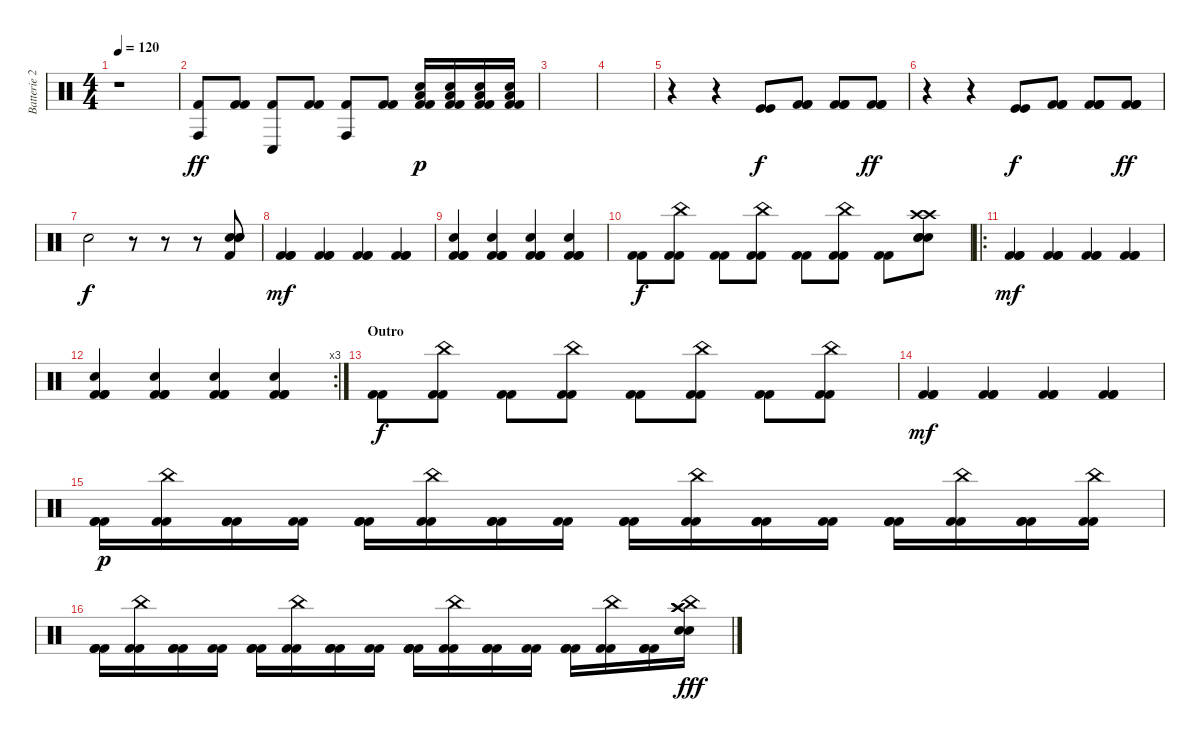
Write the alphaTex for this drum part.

\track ("Batterie 2" "Batterie 2") {instrument percussion}
\staff {score}
\articulation defaults
\ts (4 4)
\tempo 120
\clef neutral
\ks c
r.1{dy p} |
("Conga high (hit)" "Kick (hit) 2").8{dy ff} ("Kick (hit) 2" "Kick (hit) 2").8 ("Conga low (hit)" "Kick (hit) 2").8 ("Kick (hit) 2" "Kick (hit) 2").8 ("Conga high (hit)" "Kick (hit) 2").8 ("Kick (hit) 2" "Kick (hit) 2").8 ("Low Tom (hit)" "Kick (hit) 2" "Kick (hit) 2" "Electric Snare (hit)").16{dy p} ("Low Tom (hit)" "Kick (hit) 2" "Kick (hit) 2" "Electric Snare (hit)").16 ("Low Tom (hit)" "Kick (hit) 2" "Kick (hit) 2" "Electric Snare (hit)").16 ("Low Floor Tom (hit)" "Kick (hit) 2" "Kick (hit) 2" "Electric Snare (hit)").16 |
|
|
r.4 r.4 ("Kick (hit)" "Kick (hit)").8{dy f} ("Kick (hit) 2" "Kick (hit) 2" "Kick (hit) 2").8 ("Kick (hit) 2" "Kick (hit) 2" "Kick (hit) 2").8 ("Kick (hit) 2" "Kick (hit) 2" "Kick (hit) 2").8{dy ff} |
r.4 r.4 ("Kick (hit)" "Kick (hit)").8{dy f} ("Kick (hit) 2" "Kick (hit) 2" "Kick (hit) 2").8 ("Kick (hit) 2" "Kick (hit) 2" "Kick (hit) 2").8 ("Kick (hit) 2" "Kick (hit) 2" "Kick (hit) 2").8{dy ff} |
\section ("" "")
"Snare (hit)".2{dy f} r.8 r.8 r.8 ("Electric Snare (hit)" "Electric Snare (hit)" "Electric Snare (hit)" "Kick (hit) 2").8{bd 120} |
("Kick (hit) 2" "Kick (hit) 2" "Kick (hit) 2").4{dy mf} ("Kick (hit) 2" "Kick (hit) 2" "Kick (hit) 2").4 ("Kick (hit) 2" "Kick (hit) 2" "Kick (hit) 2").4 ("Kick (hit) 2" "Kick (hit) 2" "Kick (hit) 2").4 |
("Electric Snare (hit)" "Kick (hit) 2" "Kick (hit) 2" "Kick (hit) 2").4 ("Electric Snare (hit)" "Kick (hit) 2" "Kick (hit) 2" "Kick (hit) 2").4 ("Electric Snare (hit)" "Kick (hit) 2" "Kick (hit) 2" "Kick (hit) 2").4 ("Electric Snare (hit)" "Kick (hit) 2" "Kick (hit) 2" "Kick (hit) 2").4 |
("Kick (hit) 2" "Kick (hit) 2").8{dy f} ("China (hit)" "Kick (hit) 2" "Kick (hit) 2").8 ("Kick (hit) 2" "Kick (hit) 2").8 ("China (hit)" "Kick (hit) 2" "Kick (hit) 2").8 ("Kick (hit) 2" "Kick (hit) 2").8 ("China (hit)" "Kick (hit) 2" "Kick (hit) 2").8 ("Kick (hit) 2" "Kick (hit) 2").8 ("Crash high (hit)" "Crash high (hit)" "Electric Snare (hit)" "Electric Snare (hit)" "Electric Snare (hit)").8 |
\ro
("Kick (hit) 2" "Kick (hit) 2" "Kick (hit) 2").4{dy mf} ("Kick (hit) 2" "Kick (hit) 2" "Kick (hit) 2").4 ("Kick (hit) 2" "Kick (hit) 2" "Kick (hit) 2").4 ("Kick (hit) 2" "Kick (hit) 2" "Kick (hit) 2").4 |
\rc 3
("Electric Snare (hit)" "Kick (hit) 2" "Kick (hit) 2" "Kick (hit) 2").4 ("Electric Snare (hit)" "Kick (hit) 2" "Kick (hit) 2" "Kick (hit) 2").4 ("Electric Snare (hit)" "Kick (hit) 2" "Kick (hit) 2" "Kick (hit) 2").4 ("Electric Snare (hit)" "Kick (hit) 2" "Kick (hit) 2" "Kick (hit) 2").4 |
\section ("" "Outro")
("Kick (hit) 2" "Kick (hit) 2").8{dy f} ("China (hit)" "Kick (hit) 2" "Kick (hit) 2").8 ("Kick (hit) 2" "Kick (hit) 2").8 ("China (hit)" "Kick (hit) 2" "Kick (hit) 2").8 ("Kick (hit) 2" "Kick (hit) 2").8 ("China (hit)" "Kick (hit) 2" "Kick (hit) 2").8 ("Kick (hit) 2" "Kick (hit) 2").8 ("China (hit)" "Kick (hit) 2" "Kick (hit) 2").8 |
("Kick (hit) 2" "Kick (hit) 2" "Kick (hit) 2").4{dy mf} ("Kick (hit) 2" "Kick (hit) 2" "Kick (hit) 2").4 ("Kick (hit) 2" "Kick (hit) 2" "Kick (hit) 2").4 ("Kick (hit) 2" "Kick (hit) 2" "Kick (hit) 2").4 |
("Kick (hit) 2" "Kick (hit) 2" "Kick (hit) 2").16{dy p} ("China (hit)" "Kick (hit) 2" "Kick (hit) 2").16 ("Kick (hit) 2" "Kick (hit) 2" "Kick (hit) 2").16 ("Kick (hit) 2" "Kick (hit) 2").16 ("Kick (hit) 2" "Kick (hit) 2" "Kick (hit) 2").16 ("China (hit)" "Kick (hit) 2" "Kick (hit) 2").16 ("Kick (hit) 2" "Kick (hit) 2" "Kick (hit) 2").16 ("Kick (hit) 2" "Kick (hit) 2").16 ("Kick (hit) 2" "Kick (hit) 2" "Kick (hit) 2").16 ("China (hit)" "Kick (hit) 2" "Kick (hit) 2").16 ("Kick (hit) 2" "Kick (hit) 2" "Kick (hit) 2").16 ("Kick (hit) 2" "Kick (hit) 2").16 ("Kick (hit) 2" "Kick (hit) 2" "Kick (hit) 2").16 ("China (hit)" "Kick (hit) 2" "Kick (hit) 2").16 ("Kick (hit) 2" "Kick (hit) 2" "Kick (hit) 2").16 ("China (hit)" "Kick (hit) 2" "Kick (hit) 2").16 |
("Kick (hit) 2" "Kick (hit) 2" "Kick (hit) 2").16 ("China (hit)" "Kick (hit) 2" "Kick (hit) 2").16 ("Kick (hit) 2" "Kick (hit) 2" "Kick (hit) 2").16 ("Kick (hit) 2" "Kick (hit) 2").16 ("Kick (hit) 2" "Kick (hit) 2" "Kick (hit) 2").16 ("China (hit)" "Kick (hit) 2" "Kick (hit) 2").16 ("Kick (hit) 2" "Kick (hit) 2" "Kick (hit) 2").16 ("Kick (hit) 2" "Kick (hit) 2").16 ("Kick (hit) 2" "Kick (hit) 2" "Kick (hit) 2").16 ("China (hit)" "Kick (hit) 2" "Kick (hit) 2").16 ("Kick (hit) 2" "Kick (hit) 2" "Kick (hit) 2").16 ("Kick (hit) 2" "Kick (hit) 2").16 ("Kick (hit) 2" "Kick (hit) 2" "Kick (hit) 2").16 ("China (hit)" "Kick (hit) 2" "Kick (hit) 2").16 ("Kick (hit) 2" "Kick (hit) 2" "Kick (hit) 2").16 ("Crash high (hit)" "Crash high (hit)" "China (hit)" "Electric Snare (hit)" "Electric Snare (hit)").16{dy fff}
